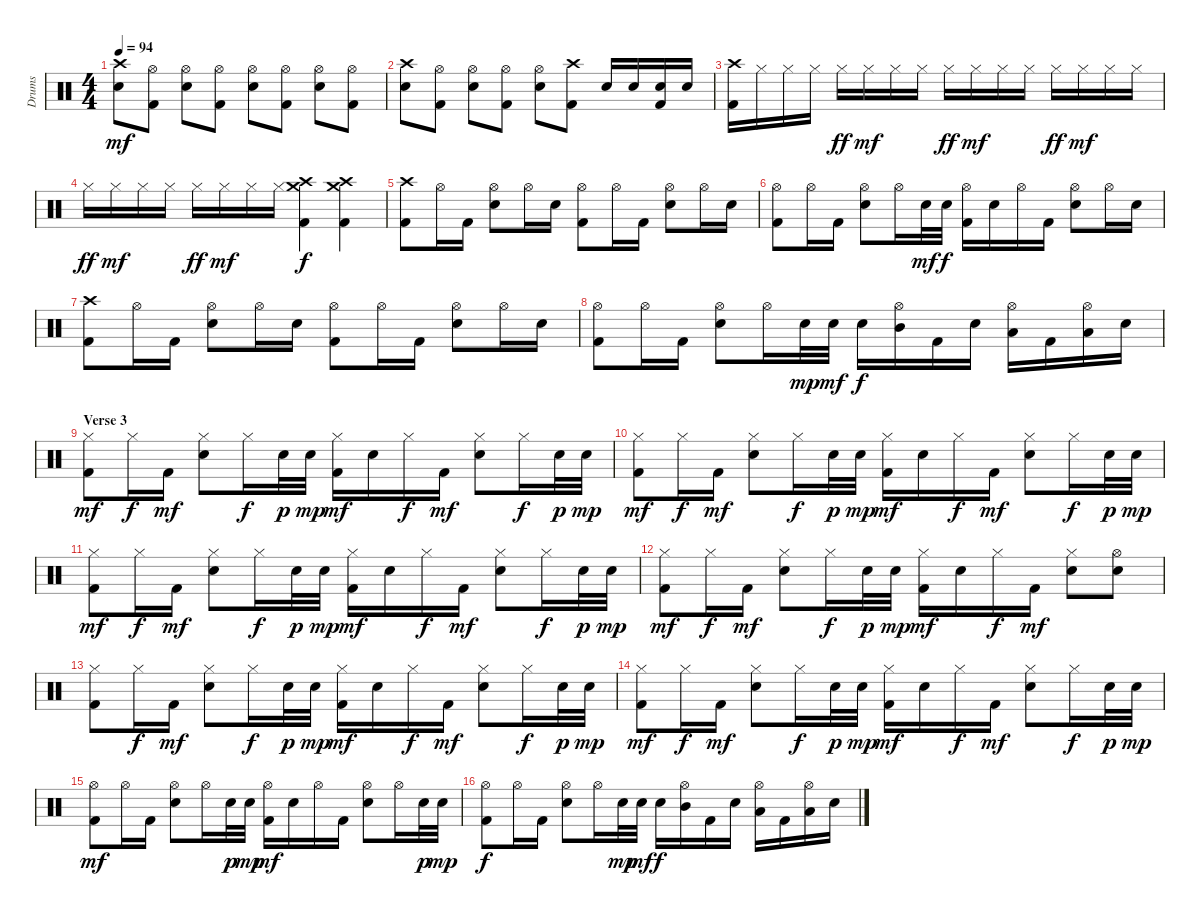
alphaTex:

\track ("Drums" "Drums") {instrument percussion}
\staff {score}
\articulation defaults
\ts (4 4)
\tempo 94
\clef neutral
\ks c
("Crash high (hit)" "Snare (hit) 2").8{dy mf} ("Hi-Hat (open)" "Kick (hit) 2").8 ("Hi-Hat (open)" "Snare (hit) 2").8 ("Hi-Hat (open)" "Kick (hit) 2").8 ("Hi-Hat (open)" "Snare (hit) 2").8 ("Hi-Hat (open)" "Kick (hit) 2").8 ("Hi-Hat (open)" "Snare (hit) 2").8 ("Hi-Hat (open)" "Kick (hit) 2").8 |
("Crash high (hit)" "Snare (hit) 2").8 ("Hi-Hat (open)" "Kick (hit) 2").8 ("Hi-Hat (open)" "Snare (hit) 2").8 ("Hi-Hat (open)" "Kick (hit) 2").8 ("Hi-Hat (open)" "Snare (hit) 2").8 ("Crash high (hit)" "Kick (hit) 2").8 "Snare (hit) 2".16 "Snare (hit) 2".16 ("Snare (hit) 2" "Kick (hit) 2").16 "Snare (hit) 2".16 |
("Crash high (hit)" "Kick (hit) 2").16 "Hi-Hat (closed)".16 "Hi-Hat (closed)".16 "Hi-Hat (closed)".16 "Hi-Hat (closed)".16{dy ff} "Hi-Hat (closed)".16{dy mf} "Hi-Hat (closed)".16 "Hi-Hat (closed)".16 "Hi-Hat (closed)".16{dy ff} "Hi-Hat (closed)".16{dy mf} "Hi-Hat (closed)".16 "Hi-Hat (closed)".16 "Hi-Hat (closed)".16{dy ff} "Hi-Hat (closed)".16{dy mf} "Hi-Hat (closed)".16 "Hi-Hat (closed)".16 |
"Hi-Hat (closed)".16{dy ff} "Hi-Hat (closed)".16{dy mf} "Hi-Hat (closed)".16 "Hi-Hat (closed)".16 "Hi-Hat (closed)".16{dy ff} "Hi-Hat (closed)".16{dy mf} "Hi-Hat (closed)".16 "Hi-Hat (closed)".16 ("Crash high (hit)" "Crash medium (hit)" "Kick (hit) 2").4{dy f} ("Crash high (hit)" "Crash medium (hit)" "Kick (hit) 2").4 |
("Crash high (hit)" "Kick (hit) 2").8 "Hi-Hat (open)".16 "Kick (hit) 2".16 ("Hi-Hat (open)" "Snare (hit) 2").8 "Hi-Hat (open)".16 "Snare (hit) 2".16 ("Hi-Hat (open)" "Kick (hit) 2").8 "Hi-Hat (open)".16 "Kick (hit) 2".16 ("Hi-Hat (open)" "Snare (hit) 2").8 "Hi-Hat (open)".16 "Snare (hit) 2".16 |
("Hi-Hat (open)" "Kick (hit) 2").8 "Hi-Hat (open)".16 "Kick (hit) 2".16 ("Hi-Hat (open)" "Snare (hit) 2").8 "Hi-Hat (open)".16 "Snare (hit) 2".32{dy mf} "Snare (hit) 2".32{dy f} ("Hi-Hat (open)" "Kick (hit) 2").16 "Snare (hit) 2".16 "Hi-Hat (open)".16 "Kick (hit) 2".16 ("Hi-Hat (open)" "Snare (hit) 2").8 "Hi-Hat (open)".16 "Snare (hit) 2".16 |
("Crash high (hit)" "Kick (hit) 2").8 "Hi-Hat (open)".16 "Kick (hit) 2".16 ("Hi-Hat (open)" "Snare (hit) 2").8 "Hi-Hat (open)".16 "Snare (hit) 2".16 ("Hi-Hat (open)" "Kick (hit) 2").8 "Hi-Hat (open)".16 "Kick (hit) 2".16 ("Hi-Hat (open)" "Snare (hit) 2").8 "Hi-Hat (open)".16 "Snare (hit) 2".16 |
("Hi-Hat (open)" "Kick (hit) 2").8 "Hi-Hat (open)".16 "Kick (hit) 2".16 ("Hi-Hat (open)" "Snare (hit) 2").8 "Hi-Hat (open)".16 "Snare (hit) 2".32{dy mp} "Snare (hit) 2".32{dy mf} "Snare (hit) 2".16{dy f} ("Hi-Hat (open)" "Mid Tom (hit)").16 "Kick (hit) 2".16 "Snare (hit) 2".16 ("Hi-Hat (open)" "Low Tom (hit)").16 "Kick (hit) 2".16 ("Hi-Hat (open)" "Low Floor Tom (hit)").16 "Snare (hit) 2".16 |
\section ("" "Verse 3")
("Hi-Hat (closed)" "Kick (hit) 2").8{dy mf} "Hi-Hat (closed)".16{dy f} "Kick (hit) 2".16{dy mf} ("Hi-Hat (closed)" "Snare (hit) 2").8 "Hi-Hat (closed)".16{dy f} "Snare (hit) 2".32{dy p} "Snare (hit) 2".32{dy mp} ("Hi-Hat (closed)" "Kick (hit) 2").16{dy mf} "Snare (hit) 2".16 "Hi-Hat (closed)".16{dy f} "Kick (hit) 2".16{dy mf} ("Hi-Hat (closed)" "Snare (hit) 2").8 "Hi-Hat (closed)".16{dy f} "Snare (hit) 2".32{dy p} "Snare (hit) 2".32{dy mp} |
("Hi-Hat (closed)" "Kick (hit) 2").8{dy mf} "Hi-Hat (closed)".16{dy f} "Kick (hit) 2".16{dy mf} ("Hi-Hat (closed)" "Snare (hit) 2").8 "Hi-Hat (closed)".16{dy f} "Snare (hit) 2".32{dy p} "Snare (hit) 2".32{dy mp} ("Hi-Hat (closed)" "Kick (hit) 2").16{dy mf} "Snare (hit) 2".16 "Hi-Hat (closed)".16{dy f} "Kick (hit) 2".16{dy mf} ("Hi-Hat (closed)" "Snare (hit) 2").8 "Hi-Hat (closed)".16{dy f} "Snare (hit) 2".32{dy p} "Snare (hit) 2".32{dy mp} |
("Hi-Hat (closed)" "Kick (hit) 2").8{dy mf} "Hi-Hat (closed)".16{dy f} "Kick (hit) 2".16{dy mf} ("Hi-Hat (closed)" "Snare (hit) 2").8 "Hi-Hat (closed)".16{dy f} "Snare (hit) 2".32{dy p} "Snare (hit) 2".32{dy mp} ("Hi-Hat (closed)" "Kick (hit) 2").16{dy mf} "Snare (hit) 2".16 "Hi-Hat (closed)".16{dy f} "Kick (hit) 2".16{dy mf} ("Hi-Hat (closed)" "Snare (hit) 2").8 "Hi-Hat (closed)".16{dy f} "Snare (hit) 2".32{dy p} "Snare (hit) 2".32{dy mp} |
("Hi-Hat (closed)" "Kick (hit) 2").8{dy mf} "Hi-Hat (closed)".16{dy f} "Kick (hit) 2".16{dy mf} ("Hi-Hat (closed)" "Snare (hit) 2").8 "Hi-Hat (closed)".16{dy f} "Snare (hit) 2".32{dy p} "Snare (hit) 2".32{dy mp} ("Hi-Hat (closed)" "Kick (hit) 2").16{dy mf} "Snare (hit) 2".16 "Hi-Hat (closed)".16{dy f} "Kick (hit) 2".16{dy mf} ("Hi-Hat (closed)" "Snare (hit) 2").8 ("Hi-Hat (open)" "Snare (hit) 2").8 |
("Hi-Hat (closed)" "Kick (hit) 2").8 "Hi-Hat (closed)".16{dy f} "Kick (hit) 2".16{dy mf} ("Hi-Hat (closed)" "Snare (hit) 2").8 "Hi-Hat (closed)".16{dy f} "Snare (hit) 2".32{dy p} "Snare (hit) 2".32{dy mp} ("Hi-Hat (closed)" "Kick (hit) 2").16{dy mf} "Snare (hit) 2".16 "Hi-Hat (closed)".16{dy f} "Kick (hit) 2".16{dy mf} ("Hi-Hat (closed)" "Snare (hit) 2").8 "Hi-Hat (closed)".16{dy f} "Snare (hit) 2".32{dy p} "Snare (hit) 2".32{dy mp} |
("Hi-Hat (closed)" "Kick (hit) 2").8{dy mf} "Hi-Hat (closed)".16{dy f} "Kick (hit) 2".16{dy mf} ("Hi-Hat (closed)" "Snare (hit) 2").8 "Hi-Hat (closed)".16{dy f} "Snare (hit) 2".32{dy p} "Snare (hit) 2".32{dy mp} ("Hi-Hat (closed)" "Kick (hit) 2").16{dy mf} "Snare (hit) 2".16 "Hi-Hat (closed)".16{dy f} "Kick (hit) 2".16{dy mf} ("Hi-Hat (closed)" "Snare (hit) 2").8 "Hi-Hat (closed)".16{dy f} "Snare (hit) 2".32{dy p} "Snare (hit) 2".32{dy mp} |
("Hi-Hat (open)" "Kick (hit) 2").8{dy mf} "Hi-Hat (open)".16 "Kick (hit) 2".16 ("Hi-Hat (open)" "Snare (hit) 2").8 "Hi-Hat (open)".16 "Snare (hit) 2".32{dy p} "Snare (hit) 2".32{dy mp} ("Hi-Hat (open)" "Kick (hit) 2").16{dy mf} "Snare (hit) 2".16 "Hi-Hat (open)".16 "Kick (hit) 2".16 ("Hi-Hat (open)" "Snare (hit) 2").8 "Hi-Hat (open)".16 "Snare (hit) 2".32{dy p} "Snare (hit) 2".32{dy mp} |
("Hi-Hat (open)" "Kick (hit) 2").8{dy f} "Hi-Hat (open)".16 "Kick (hit) 2".16 ("Hi-Hat (open)" "Snare (hit) 2").8 "Hi-Hat (open)".16 "Snare (hit) 2".32{dy mp} "Snare (hit) 2".32{dy mf} "Snare (hit) 2".16{dy f} ("Hi-Hat (open)" "Mid Tom (hit)").16 "Kick (hit) 2".16 "Snare (hit) 2".16 ("Hi-Hat (open)" "Low Tom (hit)").16 "Kick (hit) 2".16 ("Hi-Hat (open)" "Low Floor Tom (hit)").16 "Snare (hit) 2".16
